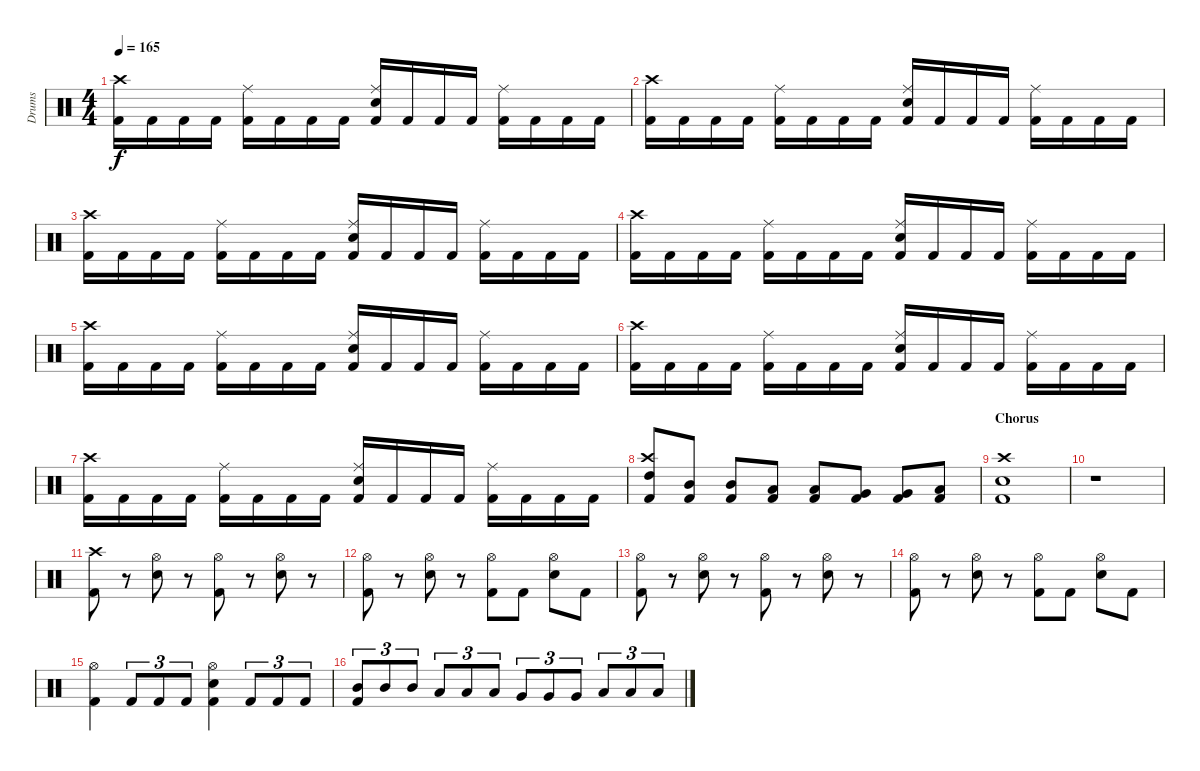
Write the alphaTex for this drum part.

\track ("Drums" "Drums") {instrument percussion}
\staff {score}
\articulation defaults
\ts (4 4)
\tempo 165
\clef neutral
\ks c
("Kick (hit) 2" "Crash high (hit)").16{dy f} "Kick (hit) 2".16 "Kick (hit) 2".16 "Kick (hit) 2".16 ("Kick (hit) 2" "Ride (middle)").16 "Kick (hit) 2".16 "Kick (hit) 2".16 "Kick (hit) 2".16 ("Kick (hit) 2" "Electric Snare (hit)" "Ride (middle)").16 "Kick (hit) 2".16 "Kick (hit) 2".16 "Kick (hit) 2".16 ("Kick (hit) 2" "Ride (middle)").16 "Kick (hit) 2".16 "Kick (hit) 2".16 "Kick (hit) 2".16 |
("Kick (hit) 2" "Crash high (hit)").16 "Kick (hit) 2".16 "Kick (hit) 2".16 "Kick (hit) 2".16 ("Kick (hit) 2" "Ride (middle)").16 "Kick (hit) 2".16 "Kick (hit) 2".16 "Kick (hit) 2".16 ("Kick (hit) 2" "Electric Snare (hit)" "Ride (middle)").16 "Kick (hit) 2".16 "Kick (hit) 2".16 "Kick (hit) 2".16 ("Kick (hit) 2" "Ride (middle)").16 "Kick (hit) 2".16 "Kick (hit) 2".16 "Kick (hit) 2".16 |
("Kick (hit) 2" "Crash high (hit)").16 "Kick (hit) 2".16 "Kick (hit) 2".16 "Kick (hit) 2".16 ("Kick (hit) 2" "Ride (middle)").16 "Kick (hit) 2".16 "Kick (hit) 2".16 "Kick (hit) 2".16 ("Kick (hit) 2" "Electric Snare (hit)" "Ride (middle)").16 "Kick (hit) 2".16 "Kick (hit) 2".16 "Kick (hit) 2".16 ("Kick (hit) 2" "Ride (middle)").16 "Kick (hit) 2".16 "Kick (hit) 2".16 "Kick (hit) 2".16 |
("Kick (hit) 2" "Crash high (hit)").16 "Kick (hit) 2".16 "Kick (hit) 2".16 "Kick (hit) 2".16 ("Kick (hit) 2" "Ride (middle)").16 "Kick (hit) 2".16 "Kick (hit) 2".16 "Kick (hit) 2".16 ("Kick (hit) 2" "Electric Snare (hit)" "Ride (middle)").16 "Kick (hit) 2".16 "Kick (hit) 2".16 "Kick (hit) 2".16 ("Kick (hit) 2" "Ride (middle)").16 "Kick (hit) 2".16 "Kick (hit) 2".16 "Kick (hit) 2".16 |
("Kick (hit) 2" "Crash high (hit)").16 "Kick (hit) 2".16 "Kick (hit) 2".16 "Kick (hit) 2".16 ("Kick (hit) 2" "Ride (middle)").16 "Kick (hit) 2".16 "Kick (hit) 2".16 "Kick (hit) 2".16 ("Kick (hit) 2" "Electric Snare (hit)" "Ride (middle)").16 "Kick (hit) 2".16 "Kick (hit) 2".16 "Kick (hit) 2".16 ("Kick (hit) 2" "Ride (middle)").16 "Kick (hit) 2".16 "Kick (hit) 2".16 "Kick (hit) 2".16 |
("Kick (hit) 2" "Crash high (hit)").16 "Kick (hit) 2".16 "Kick (hit) 2".16 "Kick (hit) 2".16 ("Kick (hit) 2" "Ride (middle)").16 "Kick (hit) 2".16 "Kick (hit) 2".16 "Kick (hit) 2".16 ("Kick (hit) 2" "Electric Snare (hit)" "Ride (middle)").16 "Kick (hit) 2".16 "Kick (hit) 2".16 "Kick (hit) 2".16 ("Kick (hit) 2" "Ride (middle)").16 "Kick (hit) 2".16 "Kick (hit) 2".16 "Kick (hit) 2".16 |
("Kick (hit) 2" "Crash high (hit)").16 "Kick (hit) 2".16 "Kick (hit) 2".16 "Kick (hit) 2".16 ("Kick (hit) 2" "Ride (middle)").16 "Kick (hit) 2".16 "Kick (hit) 2".16 "Kick (hit) 2".16 ("Kick (hit) 2" "Electric Snare (hit)" "Ride (middle)").16 "Kick (hit) 2".16 "Kick (hit) 2".16 "Kick (hit) 2".16 ("Kick (hit) 2" "Ride (middle)").16 "Kick (hit) 2".16 "Kick (hit) 2".16 "Kick (hit) 2".16 |
("Kick (hit) 2" "High Tom (hit)" "Crash high (hit)").8 ("Kick (hit) 2" "Mid Tom (hit)").8 ("Kick (hit) 2" "Mid Tom (hit)").8 ("Kick (hit) 2" "Low Tom (hit)").8 ("Kick (hit) 2" "Low Tom (hit)").8 ("Kick (hit) 2" "Very Low Tom (hit)").8 ("Kick (hit) 2" "Very Low Tom (hit)").8 ("Kick (hit) 2" "Low Floor Tom (hit)").8 |
\section ("" "Chorus")
("Kick (hit) 2" "Electric Snare (hit)" "Crash high (hit)").1 |
r.1 |
("Kick (hit) 2" "Crash high (hit)").8 r.8 ("Electric Snare (hit)" "Hi-Hat (open)").8 r.8 ("Kick (hit) 2" "Hi-Hat (open)").8 r.8 ("Electric Snare (hit)" "Hi-Hat (open)").8 r.8 |
("Kick (hit) 2" "Hi-Hat (open)").8 r.8 ("Electric Snare (hit)" "Hi-Hat (open)").8 r.8 ("Kick (hit) 2" "Hi-Hat (open)").8 "Kick (hit) 2".8 ("Electric Snare (hit)" "Hi-Hat (open)").8 "Kick (hit) 2".8 |
("Kick (hit) 2" "Hi-Hat (open)").8 r.8 ("Electric Snare (hit)" "Hi-Hat (open)").8 r.8 ("Kick (hit) 2" "Hi-Hat (open)").8 r.8 ("Electric Snare (hit)" "Hi-Hat (open)").8 r.8 |
("Kick (hit) 2" "Hi-Hat (open)").8 r.8 ("Electric Snare (hit)" "Hi-Hat (open)").8 r.8 ("Kick (hit) 2" "Hi-Hat (open)").8 "Kick (hit) 2".8 ("Electric Snare (hit)" "Hi-Hat (open)").8 "Kick (hit) 2".8 |
("Kick (hit) 2" "Hi-Hat (open)").4 "Kick (hit) 2".8{tu (3 2)} "Kick (hit) 2".8{tu (3 2)} "Kick (hit) 2".8{tu (3 2)} ("Kick (hit) 2" "Electric Snare (hit)" "Hi-Hat (open)").4 "Kick (hit) 2".8{tu (3 2)} "Kick (hit) 2".8{tu (3 2)} "Kick (hit) 2".8{tu (3 2)} |
("Kick (hit) 2" "Mid Tom (hit)").8{tu (3 2)} "Mid Tom (hit)".8{tu (3 2)} "Mid Tom (hit)".8{tu (3 2)} "Low Tom (hit)".8{tu (3 2)} "Low Tom (hit)".8{tu (3 2)} "Low Tom (hit)".8{tu (3 2)} "Very Low Tom (hit)".8{tu (3 2)} "Very Low Tom (hit)".8{tu (3 2)} "Very Low Tom (hit)".8{tu (3 2)} "Low Floor Tom (hit)".8{tu (3 2)} "Low Floor Tom (hit)".8{tu (3 2)} "Low Floor Tom (hit)".8{tu (3 2)}
